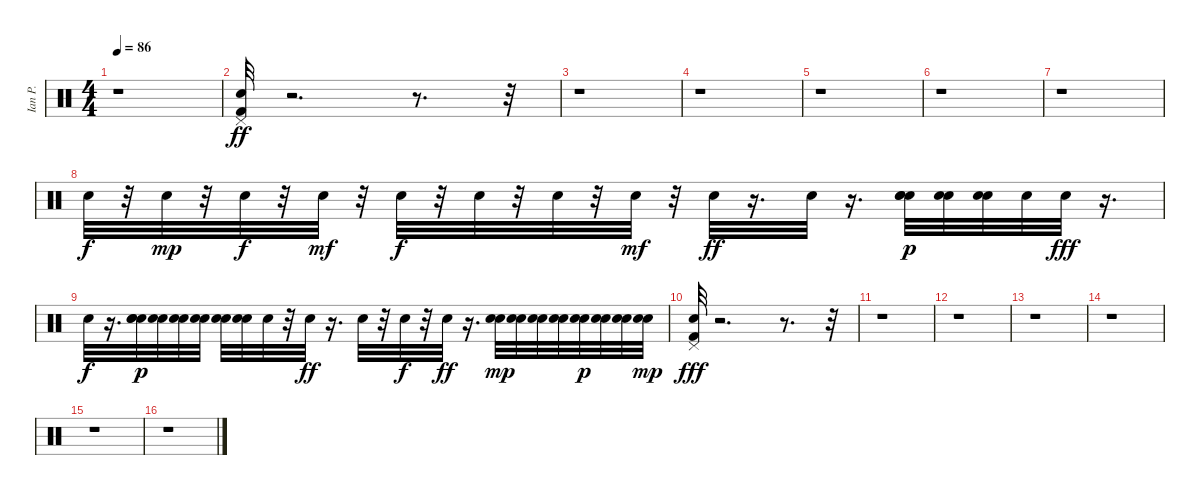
\track ("Ian P." "Ian P.") {instrument percussion}
\staff {score}
\articulation defaults
\ts (4 4)
\tempo 86
\clef neutral
\ks c
r.1{dy fff} |
("Snare (hit) 2" "Kick (hit) 2" "Pedal Hi-Hat (hit)").32{dy ff volume 16 balance 8} r.2{d} r.8{d} r.32 |
r.1 |
r.1 |
r.1 |
r.1 |
r.1 |
"Snare (hit) 2".32{dy f} r.32 "Snare (hit) 2".32{dy mp} r.32 "Snare (hit) 2".32{dy f} r.32 "Snare (hit) 2".32{dy mf} r.32 "Snare (hit) 2".32{dy f} r.32 "Snare (hit) 2".32 r.32 "Snare (hit) 2".32 r.32 "Snare (hit) 2".32{dy mf} r.32 "Snare (hit) 2".32{dy ff} r.16{d} "Snare (hit) 2".32 r.16{d} ("Snare (hit) 2" "Snare (hit) 2" "Snare (hit) 2").32{dy p} ("Snare (hit) 2" "Snare (hit) 2").32 ("Snare (hit) 2" "Snare (hit) 2").32 "Snare (hit) 2".32 "Snare (hit) 2".32{dy fff} r.16{d} |
"Snare (hit) 2".32{dy f} r.16{d} ("Snare (hit) 2" "Snare (hit) 2" "Snare (hit) 2").32{dy p} ("Snare (hit) 2" "Snare (hit) 2").32 ("Snare (hit) 2" "Snare (hit) 2").32 ("Snare (hit) 2" "Snare (hit) 2").32 ("Snare (hit) 2" "Snare (hit) 2").32 ("Snare (hit) 2" "Snare (hit) 2").32 "Snare (hit) 2".32 r.32 "Snare (hit) 2".32{dy ff} r.16{d} "Snare (hit) 2".32 r.32 "Snare (hit) 2".32{dy f} r.32 "Snare (hit) 2".32{dy ff} r.16{d} ("Snare (hit) 2" "Snare (hit) 2").32{dy mp} ("Snare (hit) 2" "Snare (hit) 2").32 ("Snare (hit) 2" "Snare (hit) 2").32 ("Snare (hit) 2" "Snare (hit) 2").32 ("Snare (hit) 2" "Snare (hit) 2").32{dy p} ("Snare (hit) 2" "Snare (hit) 2").32 ("Snare (hit) 2" "Snare (hit) 2").32 ("Snare (hit) 2" "Snare (hit) 2").32{dy mp} |
("Snare (hit) 2" "Kick (hit) 2" "Pedal Hi-Hat (hit)").32{dy fff volume 16 balance 8} r.2{d} r.8{d} r.32 |
r.1 |
r.1 |
r.1 |
r.1 |
r.1 |
r.1
